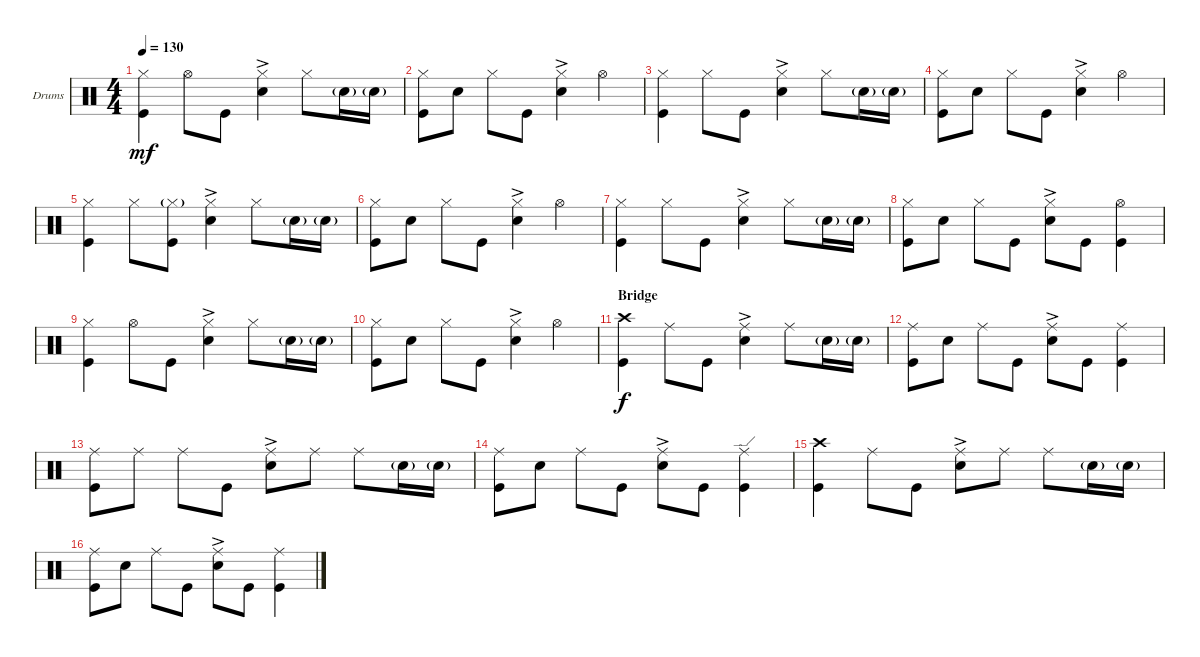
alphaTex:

\bracketExtendMode groupsimilarinstruments
\firstSystemTrackNameOrientation horizontal
\otherSystemsTrackNameOrientation horizontal
\track ("Drumkit" "Drums") {instrument percussion}
\staff {score}
\articulation defaults
\ts (4 4)
\tempo 130
\clef neutral
\ks c
("Hi-Hat (closed)" "Kick (hit)").4{dy mf} "Hi-Hat (open)".8 "Kick (hit)".8 ("Snare (hit) 2"{ac} "Hi-Hat (closed)").4 "Hi-Hat (closed)".8 "Snare (hit) 2"{g}.16 "Snare (hit) 2"{g}.16 |
("Kick (hit)" "Hi-Hat (closed)").8 "Snare (hit) 2".8 "Hi-Hat (closed)".8 "Kick (hit)".8 ("Snare (hit) 2"{ac} "Hi-Hat (closed)").4 "Hi-Hat (open)".4 |
("Hi-Hat (closed)" "Kick (hit)").4 "Hi-Hat (closed)".8 "Kick (hit)".8 ("Snare (hit) 2"{ac} "Hi-Hat (closed)").4 "Hi-Hat (closed)".8 "Snare (hit) 2"{g}.16 "Snare (hit) 2"{g}.16 |
("Kick (hit)" "Hi-Hat (closed)").8 "Snare (hit) 2".8 "Hi-Hat (closed)".8 "Kick (hit)".8 ("Snare (hit) 2"{ac} "Hi-Hat (closed)").4 "Hi-Hat (open)".4 |
("Hi-Hat (closed)" "Kick (hit)").4 "Hi-Hat (closed)".8 ("Kick (hit)" "Hi-Hat (closed)"{g}).8 ("Snare (hit) 2"{ac} "Hi-Hat (closed)").4 "Hi-Hat (closed)".8 "Snare (hit) 2"{g}.16 "Snare (hit) 2"{g}.16 |
("Kick (hit)" "Hi-Hat (closed)").8 "Snare (hit) 2".8 "Hi-Hat (closed)".8 "Kick (hit)".8 ("Snare (hit) 2"{ac} "Hi-Hat (closed)").4 "Hi-Hat (open)".4 |
("Hi-Hat (closed)" "Kick (hit)").4 "Hi-Hat (closed)".8 "Kick (hit)".8 ("Snare (hit) 2"{ac} "Hi-Hat (closed)").4 "Hi-Hat (closed)".8 "Snare (hit) 2"{g}.16 "Snare (hit) 2"{g}.16 |
("Kick (hit)" "Hi-Hat (closed)").8 "Snare (hit) 2".8 "Hi-Hat (closed)".8 "Kick (hit)".8 ("Snare (hit) 2"{ac} "Hi-Hat (closed)").8 "Kick (hit)".8 ("Hi-Hat (open)" "Kick (hit)").4 |
("Hi-Hat (closed)" "Kick (hit)").4 "Hi-Hat (open)".8 "Kick (hit)".8 ("Snare (hit) 2"{ac} "Hi-Hat (closed)").4 "Hi-Hat (closed)".8 "Snare (hit) 2"{g}.16 "Snare (hit) 2"{g}.16 |
("Kick (hit)" "Hi-Hat (closed)").8 "Snare (hit) 2".8 "Hi-Hat (closed)".8 "Kick (hit)".8 ("Snare (hit) 2"{ac} "Hi-Hat (closed)").4 "Hi-Hat (open)".4 |
\section ("" "Bridge")
("Kick (hit)" "Crash high (hit)").4{dy f} "Ride (middle)".8 "Kick (hit)".8 ("Snare (hit) 2"{ac} "Ride (middle)").4 "Ride (middle)".8 "Snare (hit) 2"{g}.16 "Snare (hit) 2"{g}.16 |
("Kick (hit)" "Ride (middle)").8 "Snare (hit) 2".8 "Ride (middle)".8 "Kick (hit)".8 ("Snare (hit) 2"{ac} "Ride (middle)").8 "Kick (hit)".8 ("Kick (hit)" "Ride (middle)").4 |
("Kick (hit)" "Ride (middle)").8 "Ride (middle)".8 "Ride (middle)".8 "Kick (hit)".8 ("Snare (hit) 2"{ac} "Ride (middle)").8 "Ride (middle)".8 "Ride (middle)".8 "Snare (hit) 2"{g}.16 "Snare (hit) 2"{g}.16 |
("Kick (hit)" "Ride (middle)").8 "Snare (hit) 2".8 "Ride (middle)".8 "Kick (hit)".8 ("Snare (hit) 2"{ac} "Ride (middle)").8 "Kick (hit)".8 ("Kick (hit)" "Ride (edge)").4 |
("Kick (hit)" "Crash high (hit)").4 "Ride (middle)".8 "Kick (hit)".8 ("Snare (hit) 2"{ac} "Ride (middle)").8 "Ride (middle)".8 "Ride (middle)".8 "Snare (hit) 2"{g}.16 "Snare (hit) 2"{g}.16 |
("Kick (hit)" "Ride (middle)").8 "Snare (hit) 2".8 "Ride (middle)".8 "Kick (hit)".8 ("Snare (hit) 2"{ac} "Ride (middle)").8 "Kick (hit)".8 ("Kick (hit)" "Ride (middle)").4
